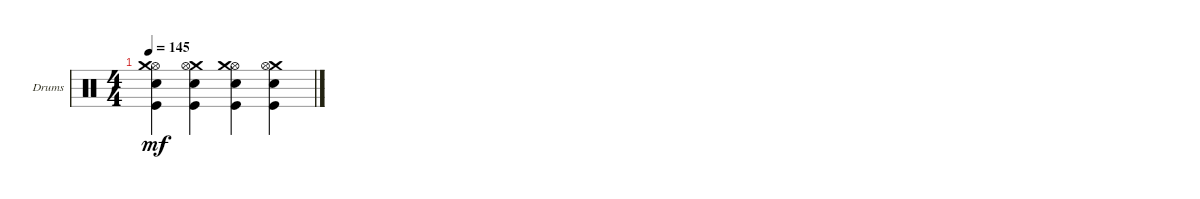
\defaultSystemsLayout 4
\bracketExtendMode groupsimilarinstruments
\firstSystemTrackNameOrientation horizontal
\otherSystemsTrackNameOrientation horizontal
\track ("Е. Кулаков" "Drums") {instrument percussion}
\staff {score}
\articulation defaults
\ts (4 4)
\tempo 145
\clef neutral
\ks c
("Kick (hit)" "Snare (hit) 2" "Hi-Hat (open)" "Crash medium (hit)").4{dy mf} ("Kick (hit)" "Snare (hit) 2" "Crash medium (hit)" "Hi-Hat (open)").4 ("Kick (hit)" "Snare (hit) 2" "Hi-Hat (open)" "Crash medium (hit)").4 ("Kick (hit)" "Snare (hit) 2" "Crash medium (hit)" "Hi-Hat (open)").4
